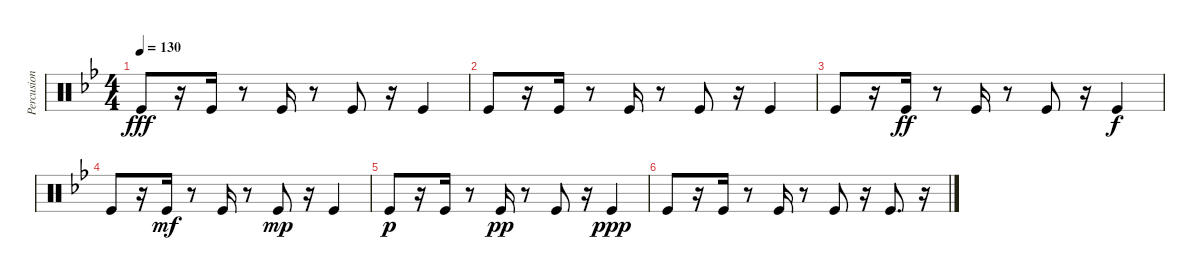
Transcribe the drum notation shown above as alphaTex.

\track ("Percusion II" "Percusion ") {instrument percussion}
\staff {score}
\articulation defaults
\ts (4 4)
\tempo 130
\clef neutral
\ks gminor "Kick (hit)".8{dy fff}
r.16 "Kick (hit)".16 r.8 "Kick (hit)".16 r.8 "Kick (hit)".8 r.16 "Kick (hit)".4 |
"Kick (hit)".8 r.16 "Kick (hit)".16 r.8 "Kick (hit)".16 r.8 "Kick (hit)".8 r.16 "Kick (hit)".4 |
"Kick (hit)".8 r.16 "Kick (hit)".16{dy ff} r.8 "Kick (hit)".16 r.8 "Kick (hit)".8 r.16 "Kick (hit)".4{dy f} |
"Kick (hit)".8 r.16 "Kick (hit)".16{dy mf} r.8 "Kick (hit)".16 r.8 "Kick (hit)".8{dy mp} r.16 "Kick (hit)".4 |
"Kick (hit)".8{dy p} r.16 "Kick (hit)".16 r.8 "Kick (hit)".16{dy pp} r.8 "Kick (hit)".8 r.16 "Kick (hit)".4{dy ppp} |
"Kick (hit)".8 r.16 "Kick (hit)".16 r.8 "Kick (hit)".16 r.8 "Kick (hit)".8 r.16 "Kick (hit)".8{d} r.16
